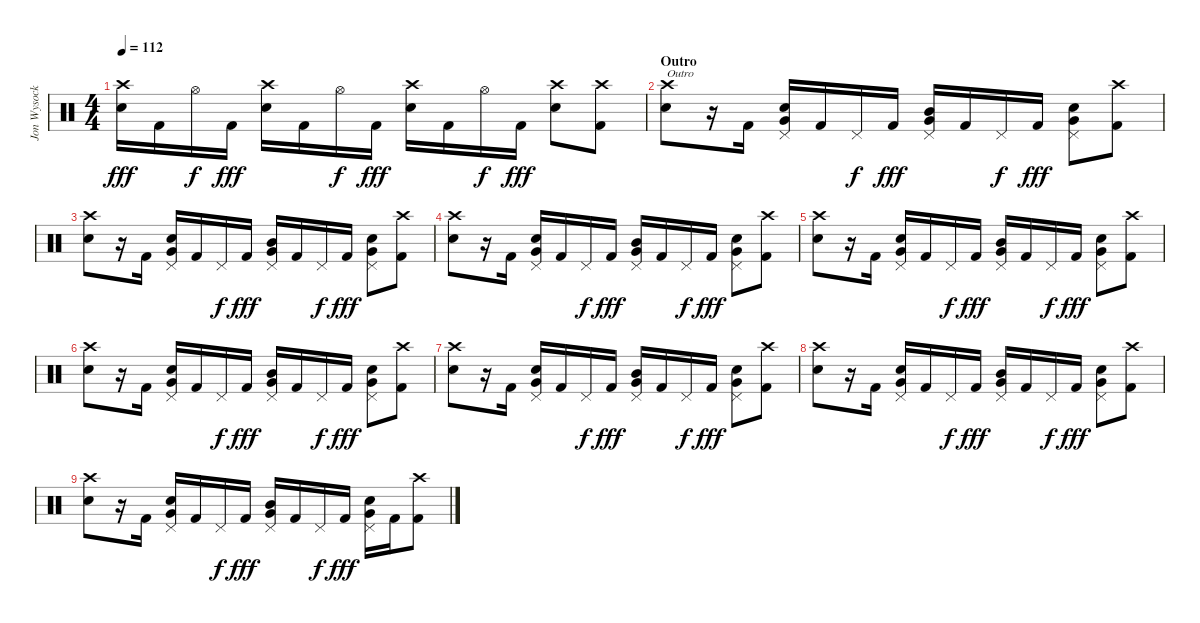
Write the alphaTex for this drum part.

\track ("Jon Wysocki" "Jon Wysock") {instrument percussion}
\staff {score}
\articulation defaults
\ts (4 4)
\tempo 112
\clef neutral
\ks c
("Crash high (hit)" "Electric Snare (hit)").16{dy fff} "Kick (hit) 2".16 "Hi-Hat (open)".16{dy f} "Kick (hit) 2".16{dy fff} ("Crash high (hit)" "Electric Snare (hit)").16 "Kick (hit) 2".16 "Hi-Hat (open)".16{dy f} "Kick (hit) 2".16{dy fff} ("Crash high (hit)" "Electric Snare (hit)").16 "Kick (hit) 2".16 "Hi-Hat (open)".16{dy f} "Kick (hit) 2".16{dy fff} ("Crash high (hit)" "Electric Snare (hit)").8 ("Crash high (hit)" "Kick (hit) 2").8 |
\section ("" "Outro")
("Crash high (hit)" "Electric Snare (hit)").8{txt "Outro"} r.16 "Kick (hit) 2".16 ("Pedal Hi-Hat (hit)" "Electric Snare (hit)" "Very Low Tom (hit)").16 "Kick (hit) 2".16 "Pedal Hi-Hat (hit)".16{dy f} "Kick (hit) 2".16{dy fff} ("Pedal Hi-Hat (hit)" "Mid Tom (hit)" "Very Low Tom (hit)").16 "Kick (hit) 2".16 "Pedal Hi-Hat (hit)".16{dy f} "Kick (hit) 2".16{dy fff} ("Pedal Hi-Hat (hit)" "Electric Snare (hit)" "Very Low Tom (hit)").8 ("Crash high (hit)" "Kick (hit) 2").8 |
("Crash high (hit)" "Electric Snare (hit)").8 r.16 "Kick (hit) 2".16 ("Pedal Hi-Hat (hit)" "Electric Snare (hit)" "Very Low Tom (hit)").16 "Kick (hit) 2".16 "Pedal Hi-Hat (hit)".16{dy f} "Kick (hit) 2".16{dy fff} ("Pedal Hi-Hat (hit)" "Mid Tom (hit)" "Very Low Tom (hit)").16 "Kick (hit) 2".16 "Pedal Hi-Hat (hit)".16{dy f} "Kick (hit) 2".16{dy fff} ("Pedal Hi-Hat (hit)" "Electric Snare (hit)" "Very Low Tom (hit)").8 ("Crash high (hit)" "Kick (hit) 2").8 |
("Crash high (hit)" "Electric Snare (hit)").8 r.16 "Kick (hit) 2".16 ("Pedal Hi-Hat (hit)" "Electric Snare (hit)" "Very Low Tom (hit)").16 "Kick (hit) 2".16 "Pedal Hi-Hat (hit)".16{dy f} "Kick (hit) 2".16{dy fff} ("Pedal Hi-Hat (hit)" "Mid Tom (hit)" "Very Low Tom (hit)").16 "Kick (hit) 2".16 "Pedal Hi-Hat (hit)".16{dy f} "Kick (hit) 2".16{dy fff} ("Pedal Hi-Hat (hit)" "Electric Snare (hit)" "Very Low Tom (hit)").8 ("Crash high (hit)" "Kick (hit) 2").8 |
("Crash high (hit)" "Electric Snare (hit)").8 r.16 "Kick (hit) 2".16 ("Pedal Hi-Hat (hit)" "Electric Snare (hit)" "Very Low Tom (hit)").16 "Kick (hit) 2".16 "Pedal Hi-Hat (hit)".16{dy f} "Kick (hit) 2".16{dy fff} ("Pedal Hi-Hat (hit)" "Mid Tom (hit)" "Very Low Tom (hit)").16 "Kick (hit) 2".16 "Pedal Hi-Hat (hit)".16{dy f} "Kick (hit) 2".16{dy fff} ("Pedal Hi-Hat (hit)" "Electric Snare (hit)" "Very Low Tom (hit)").8 ("Crash high (hit)" "Kick (hit) 2").8 |
("Crash high (hit)" "Electric Snare (hit)").8 r.16 "Kick (hit) 2".16 ("Pedal Hi-Hat (hit)" "Electric Snare (hit)" "Very Low Tom (hit)").16 "Kick (hit) 2".16 "Pedal Hi-Hat (hit)".16{dy f} "Kick (hit) 2".16{dy fff} ("Pedal Hi-Hat (hit)" "Mid Tom (hit)" "Very Low Tom (hit)").16 "Kick (hit) 2".16 "Pedal Hi-Hat (hit)".16{dy f} "Kick (hit) 2".16{dy fff} ("Pedal Hi-Hat (hit)" "Electric Snare (hit)" "Very Low Tom (hit)").8 ("Crash high (hit)" "Kick (hit) 2").8 |
("Crash high (hit)" "Electric Snare (hit)").8 r.16 "Kick (hit) 2".16 ("Pedal Hi-Hat (hit)" "Electric Snare (hit)" "Very Low Tom (hit)").16 "Kick (hit) 2".16 "Pedal Hi-Hat (hit)".16{dy f} "Kick (hit) 2".16{dy fff} ("Pedal Hi-Hat (hit)" "Mid Tom (hit)" "Very Low Tom (hit)").16 "Kick (hit) 2".16 "Pedal Hi-Hat (hit)".16{dy f} "Kick (hit) 2".16{dy fff} ("Pedal Hi-Hat (hit)" "Electric Snare (hit)" "Very Low Tom (hit)").8 ("Crash high (hit)" "Kick (hit) 2").8 |
("Crash high (hit)" "Electric Snare (hit)").8 r.16 "Kick (hit) 2".16 ("Pedal Hi-Hat (hit)" "Electric Snare (hit)" "Very Low Tom (hit)").16 "Kick (hit) 2".16 "Pedal Hi-Hat (hit)".16{dy f} "Kick (hit) 2".16{dy fff} ("Pedal Hi-Hat (hit)" "Mid Tom (hit)" "Very Low Tom (hit)").16 "Kick (hit) 2".16 "Pedal Hi-Hat (hit)".16{dy f} "Kick (hit) 2".16{dy fff} ("Pedal Hi-Hat (hit)" "Electric Snare (hit)" "Very Low Tom (hit)").8 ("Crash high (hit)" "Kick (hit) 2").8 |
("Crash high (hit)" "Electric Snare (hit)").8 r.16 "Kick (hit) 2".16 ("Pedal Hi-Hat (hit)" "Electric Snare (hit)" "Very Low Tom (hit)").16 "Kick (hit) 2".16 "Pedal Hi-Hat (hit)".16{dy f} "Kick (hit) 2".16{dy fff} ("Pedal Hi-Hat (hit)" "Mid Tom (hit)" "Very Low Tom (hit)").16 "Kick (hit) 2".16 "Pedal Hi-Hat (hit)".16{dy f} "Kick (hit) 2".16{dy fff} ("Pedal Hi-Hat (hit)" "Electric Snare (hit)" "Very Low Tom (hit)").16 "Kick (hit) 2".16 ("Crash high (hit)" "Kick (hit) 2").8
